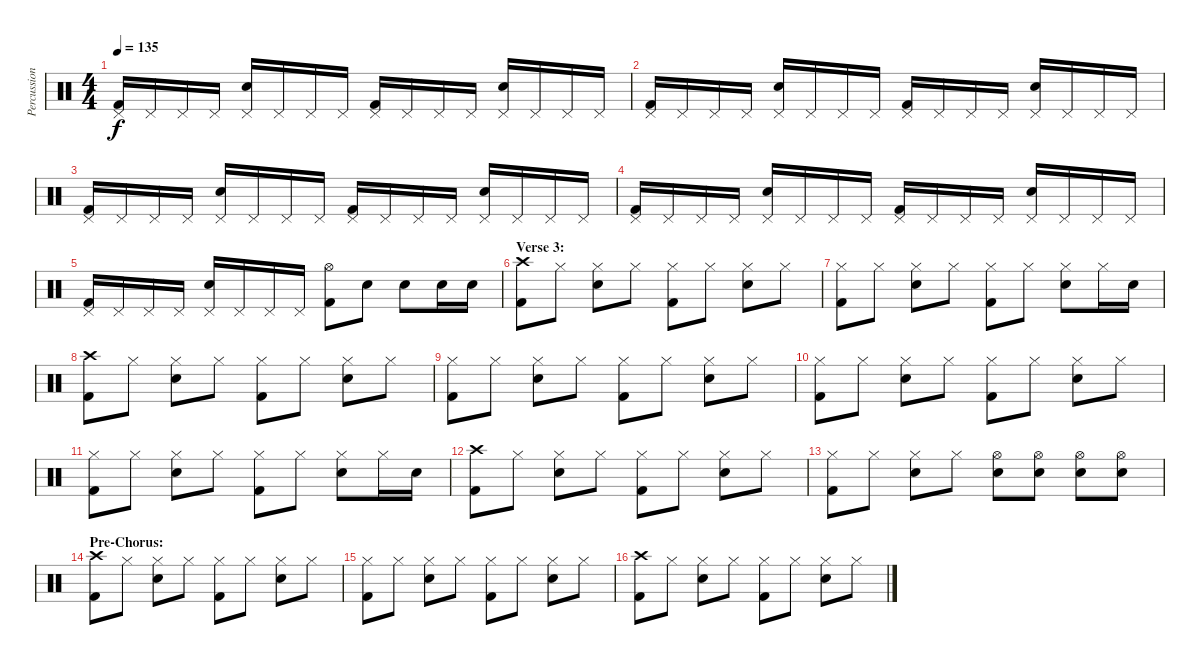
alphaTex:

\track ("Percussion" "Percussion") {instrument percussion}
\staff {score}
\articulation defaults
\ts (4 4)
\tempo 135
\clef neutral
\ks c
("Pedal Hi-Hat (hit)" "Kick (hit) 2").16{dy f} "Pedal Hi-Hat (hit)".16 "Pedal Hi-Hat (hit)".16 "Pedal Hi-Hat (hit)".16 ("Pedal Hi-Hat (hit)" "Snare (hit) 2").16 "Pedal Hi-Hat (hit)".16 "Pedal Hi-Hat (hit)".16 "Pedal Hi-Hat (hit)".16 ("Pedal Hi-Hat (hit)" "Kick (hit) 2").16 "Pedal Hi-Hat (hit)".16 "Pedal Hi-Hat (hit)".16 "Pedal Hi-Hat (hit)".16 ("Pedal Hi-Hat (hit)" "Snare (hit) 2").16 "Pedal Hi-Hat (hit)".16 "Pedal Hi-Hat (hit)".16 "Pedal Hi-Hat (hit)".16 |
("Pedal Hi-Hat (hit)" "Kick (hit) 2").16 "Pedal Hi-Hat (hit)".16 "Pedal Hi-Hat (hit)".16 "Pedal Hi-Hat (hit)".16 ("Pedal Hi-Hat (hit)" "Snare (hit) 2").16 "Pedal Hi-Hat (hit)".16 "Pedal Hi-Hat (hit)".16 "Pedal Hi-Hat (hit)".16 ("Pedal Hi-Hat (hit)" "Kick (hit) 2").16 "Pedal Hi-Hat (hit)".16 "Pedal Hi-Hat (hit)".16 "Pedal Hi-Hat (hit)".16 ("Pedal Hi-Hat (hit)" "Snare (hit) 2").16 "Pedal Hi-Hat (hit)".16 "Pedal Hi-Hat (hit)".16 "Pedal Hi-Hat (hit)".16 |
("Pedal Hi-Hat (hit)" "Kick (hit) 2").16 "Pedal Hi-Hat (hit)".16 "Pedal Hi-Hat (hit)".16 "Pedal Hi-Hat (hit)".16 ("Pedal Hi-Hat (hit)" "Snare (hit) 2").16 "Pedal Hi-Hat (hit)".16 "Pedal Hi-Hat (hit)".16 "Pedal Hi-Hat (hit)".16 ("Pedal Hi-Hat (hit)" "Kick (hit) 2").16 "Pedal Hi-Hat (hit)".16 "Pedal Hi-Hat (hit)".16 "Pedal Hi-Hat (hit)".16 ("Pedal Hi-Hat (hit)" "Snare (hit) 2").16 "Pedal Hi-Hat (hit)".16 "Pedal Hi-Hat (hit)".16 "Pedal Hi-Hat (hit)".16 |
("Pedal Hi-Hat (hit)" "Kick (hit) 2").16 "Pedal Hi-Hat (hit)".16 "Pedal Hi-Hat (hit)".16 "Pedal Hi-Hat (hit)".16 ("Pedal Hi-Hat (hit)" "Snare (hit) 2").16 "Pedal Hi-Hat (hit)".16 "Pedal Hi-Hat (hit)".16 "Pedal Hi-Hat (hit)".16 ("Pedal Hi-Hat (hit)" "Kick (hit) 2").16 "Pedal Hi-Hat (hit)".16 "Pedal Hi-Hat (hit)".16 "Pedal Hi-Hat (hit)".16 ("Pedal Hi-Hat (hit)" "Snare (hit) 2").16 "Pedal Hi-Hat (hit)".16 "Pedal Hi-Hat (hit)".16 "Pedal Hi-Hat (hit)".16 |
("Pedal Hi-Hat (hit)" "Kick (hit) 2").16 "Pedal Hi-Hat (hit)".16 "Pedal Hi-Hat (hit)".16 "Pedal Hi-Hat (hit)".16 ("Pedal Hi-Hat (hit)" "Snare (hit) 2").16 "Pedal Hi-Hat (hit)".16 "Pedal Hi-Hat (hit)".16 "Pedal Hi-Hat (hit)".16 ("Hi-Hat (open)" "Kick (hit) 2").8 "Snare (hit) 2".8 "Snare (hit) 2".8 "Snare (hit) 2".16 "Snare (hit) 2".16 |
\section ("" "Verse 3:")
("Crash high (hit)" "Kick (hit) 2").8 "Hi-Hat (closed)".8 ("Hi-Hat (closed)" "Snare (hit) 2").8 "Hi-Hat (closed)".8 ("Hi-Hat (closed)" "Kick (hit) 2").8 "Hi-Hat (closed)".8 ("Hi-Hat (closed)" "Snare (hit) 2").8 "Hi-Hat (closed)".8 |
("Hi-Hat (closed)" "Kick (hit) 2").8 "Hi-Hat (closed)".8 ("Hi-Hat (closed)" "Snare (hit) 2").8 "Hi-Hat (closed)".8 ("Hi-Hat (closed)" "Kick (hit) 2").8 "Hi-Hat (closed)".8 ("Hi-Hat (closed)" "Snare (hit) 2").8 "Hi-Hat (closed)".16 "Snare (hit) 2".16 |
("Crash high (hit)" "Kick (hit) 2").8 "Hi-Hat (closed)".8 ("Hi-Hat (closed)" "Snare (hit) 2").8 "Hi-Hat (closed)".8 ("Hi-Hat (closed)" "Kick (hit) 2").8 "Hi-Hat (closed)".8 ("Hi-Hat (closed)" "Snare (hit) 2").8 "Hi-Hat (closed)".8 |
("Hi-Hat (closed)" "Kick (hit) 2").8 "Hi-Hat (closed)".8 ("Hi-Hat (closed)" "Snare (hit) 2").8 "Hi-Hat (closed)".8 ("Hi-Hat (closed)" "Kick (hit) 2").8 "Hi-Hat (closed)".8 ("Hi-Hat (closed)" "Snare (hit) 2").8 "Hi-Hat (closed)".8 |
("Hi-Hat (closed)" "Kick (hit) 2").8 "Hi-Hat (closed)".8 ("Hi-Hat (closed)" "Snare (hit) 2").8 "Hi-Hat (closed)".8 ("Hi-Hat (closed)" "Kick (hit) 2").8 "Hi-Hat (closed)".8 ("Hi-Hat (closed)" "Snare (hit) 2").8 "Hi-Hat (closed)".8 |
("Hi-Hat (closed)" "Kick (hit) 2").8 "Hi-Hat (closed)".8 ("Hi-Hat (closed)" "Snare (hit) 2").8 "Hi-Hat (closed)".8 ("Hi-Hat (closed)" "Kick (hit) 2").8 "Hi-Hat (closed)".8 ("Hi-Hat (closed)" "Snare (hit) 2").8 "Hi-Hat (closed)".16 "Snare (hit) 2".16 |
("Crash high (hit)" "Kick (hit) 2").8 "Hi-Hat (closed)".8 ("Hi-Hat (closed)" "Snare (hit) 2").8 "Hi-Hat (closed)".8 ("Hi-Hat (closed)" "Kick (hit) 2").8 "Hi-Hat (closed)".8 ("Hi-Hat (closed)" "Snare (hit) 2").8 "Hi-Hat (closed)".8 |
("Hi-Hat (closed)" "Kick (hit) 2").8 "Hi-Hat (closed)".8 ("Hi-Hat (closed)" "Snare (hit) 2").8 "Hi-Hat (closed)".8 ("Hi-Hat (open)" "Snare (hit) 2").8 ("Hi-Hat (open)" "Snare (hit) 2").8 ("Hi-Hat (open)" "Snare (hit) 2").8 ("Hi-Hat (open)" "Snare (hit) 2").8 |
\section ("" "Pre-Chorus:")
("Crash high (hit)" "Kick (hit) 2").8 "Hi-Hat (closed)".8 ("Hi-Hat (closed)" "Snare (hit) 2").8 "Hi-Hat (closed)".8 ("Hi-Hat (closed)" "Kick (hit) 2").8 "Hi-Hat (closed)".8 ("Hi-Hat (closed)" "Snare (hit) 2").8 "Hi-Hat (closed)".8 |
("Hi-Hat (closed)" "Kick (hit) 2").8 "Hi-Hat (closed)".8 ("Hi-Hat (closed)" "Snare (hit) 2").8 "Hi-Hat (closed)".8 ("Hi-Hat (closed)" "Kick (hit) 2").8 "Hi-Hat (closed)".8 ("Hi-Hat (closed)" "Snare (hit) 2").8 "Hi-Hat (closed)".8 |
("Crash high (hit)" "Kick (hit) 2").8 "Hi-Hat (closed)".8 ("Hi-Hat (closed)" "Snare (hit) 2").8 "Hi-Hat (closed)".8 ("Hi-Hat (closed)" "Kick (hit) 2").8 "Hi-Hat (closed)".8 ("Hi-Hat (closed)" "Snare (hit) 2").8 "Hi-Hat (closed)".8
